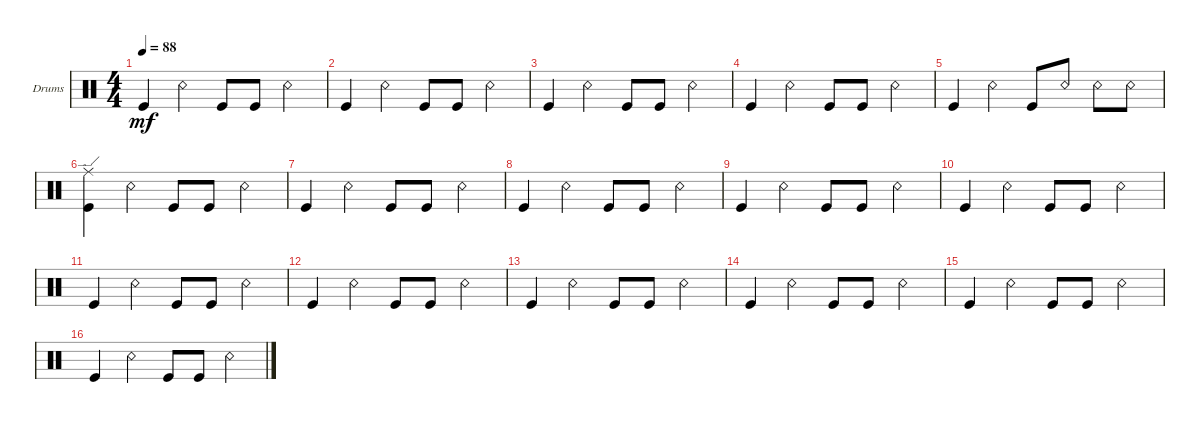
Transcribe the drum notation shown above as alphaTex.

\bracketExtendMode groupsimilarinstruments
\firstSystemTrackNameOrientation horizontal
\otherSystemsTrackNameOrientation horizontal
\track ("Drumkit" "Drums") {instrument percussion}
\staff {score}
\articulation defaults
\ts (4 4)
\tempo 88
\clef neutral
\scale
0.333333
\ks c "Kick (hit)".4{dy mf} "Snare (rim shot)".4 "Kick (hit)".8 "Kick (hit)".8 "Snare (rim shot)".4
|
\scale
0.333333 "Kick (hit)".4 "Snare (rim shot)".4 "Kick (hit)".8 "Kick (hit)".8 "Snare (rim shot)".4 |
\scale
0.333333 "Kick (hit)".4 "Snare (rim shot)".4 "Kick (hit)".8 "Kick (hit)".8 "Snare (rim shot)".4 |
\scale
0.333333 "Kick (hit)".4 "Snare (rim shot)".4 "Kick (hit)".8 "Kick (hit)".8 "Snare (rim shot)".4 |
\scale
0.333333 "Kick (hit)".4 "Snare (rim shot)".4 "Kick (hit)".8 "Snare (rim shot)".8 "Snare (rim shot)".8 "Snare (rim shot)".8 |
\scale
0.333333 ("Kick (hit)" "Ride (edge)").4 "Snare (rim shot)".4 "Kick (hit)".8 "Kick (hit)".8 "Snare (rim shot)".4 |
\scale
0.333333 "Kick (hit)".4 "Snare (rim shot)".4 "Kick (hit)".8 "Kick (hit)".8 "Snare (rim shot)".4 |
\scale
0.333333 "Kick (hit)".4 "Snare (rim shot)".4 "Kick (hit)".8 "Kick (hit)".8 "Snare (rim shot)".4 |
\scale
0.333333 "Kick (hit)".4 "Snare (rim shot)".4 "Kick (hit)".8 "Kick (hit)".8 "Snare (rim shot)".4 |
\scale
0.333333 "Kick (hit)".4 "Snare (rim shot)".4 "Kick (hit)".8 "Kick (hit)".8 "Snare (rim shot)".4 |
\scale
0.333333 "Kick (hit)".4 "Snare (rim shot)".4 "Kick (hit)".8 "Kick (hit)".8 "Snare (rim shot)".4 |
\scale
0.333333 "Kick (hit)".4 "Snare (rim shot)".4 "Kick (hit)".8 "Kick (hit)".8 "Snare (rim shot)".4 |
\scale
0.333333 "Kick (hit)".4 "Snare (rim shot)".4 "Kick (hit)".8 "Kick (hit)".8 "Snare (rim shot)".4 |
\scale
0.333333 "Kick (hit)".4 "Snare (rim shot)".4 "Kick (hit)".8 "Kick (hit)".8 "Snare (rim shot)".4 |
\scale
0.333333 "Kick (hit)".4 "Snare (rim shot)".4 "Kick (hit)".8 "Kick (hit)".8 "Snare (rim shot)".4 |
\scale
0.333333 "Kick (hit)".4 "Snare (rim shot)".4 "Kick (hit)".8 "Kick (hit)".8 "Snare (rim shot)".4
